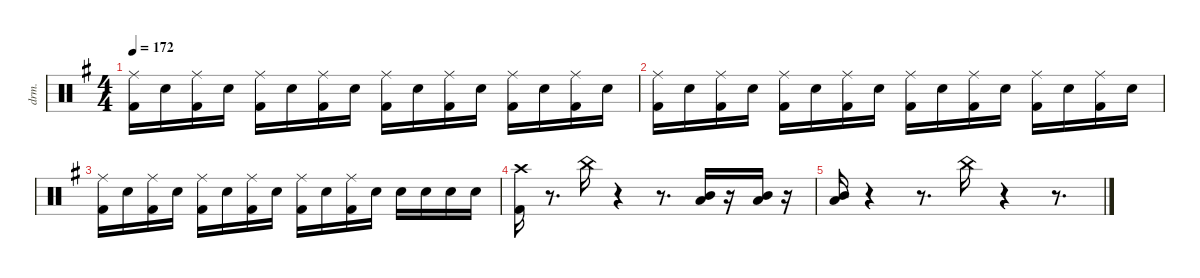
\defaultSystemsLayout 4
\hideDynamics
\bracketExtendMode nobrackets
\otherSystemsTrackNameOrientation horizontal
\track ("Shinya" "drm.") {instrument percussion}
\staff {score}
\articulation defaults
\ts (4 4)
\tempo 172
\clef neutral
\ks eminor
("Kick (hit) 2"{acc forcenatural} "Ride (middle)"{acc #}).16{dy fff beam Down} "Snare (hit) 2"{acc forcenatural}.16{beam Down} ("Kick (hit) 2"{acc forcenatural} "Ride (middle)"{acc #}).16{beam Down} "Snare (hit) 2"{acc forcenatural}.16{beam Down} ("Kick (hit) 2"{acc forcenatural} "Ride (middle)"{acc #}).16{beam Down} "Snare (hit) 2"{acc forcenatural}.16{beam Down} ("Kick (hit) 2"{acc forcenatural} "Ride (middle)"{acc #}).16{beam Down} "Snare (hit) 2"{acc forcenatural}.16{beam Down} ("Kick (hit) 2"{acc forcenatural} "Ride (middle)"{acc #}).16{beam Down} "Snare (hit) 2"{acc forcenatural}.16{beam Down} ("Kick (hit) 2"{acc forcenatural} "Ride (middle)"{acc #}).16{beam Down} "Snare (hit) 2"{acc forcenatural}.16{beam Down} ("Kick (hit) 2"{acc forcenatural} "Ride (middle)"{acc #}).16{beam Down} "Snare (hit) 2"{acc forcenatural}.16{beam Down} ("Kick (hit) 2"{acc forcenatural} "Ride (middle)"{acc #}).16{beam Down} "Snare (hit) 2"{acc forcenatural}.16{beam Down} |
("Kick (hit) 2"{acc forcenatural} "Ride (middle)"{acc #}).16{beam Down} "Snare (hit) 2"{acc forcenatural}.16{beam Down} ("Kick (hit) 2"{acc forcenatural} "Ride (middle)"{acc #}).16{beam Down} "Snare (hit) 2"{acc forcenatural}.16{beam Down} ("Kick (hit) 2"{acc forcenatural} "Ride (middle)"{acc #}).16{beam Down} "Snare (hit) 2"{acc forcenatural}.16{beam Down} ("Kick (hit) 2"{acc forcenatural} "Ride (middle)"{acc #}).16{beam Down} "Snare (hit) 2"{acc forcenatural}.16{beam Down} ("Kick (hit) 2"{acc forcenatural} "Ride (middle)"{acc #}).16{beam Down} "Snare (hit) 2"{acc forcenatural}.16{beam Down} ("Kick (hit) 2"{acc forcenatural} "Ride (middle)"{acc #}).16{beam Down} "Snare (hit) 2"{acc forcenatural}.16{beam Down} ("Kick (hit) 2"{acc forcenatural} "Ride (middle)"{acc #}).16{beam Down} "Snare (hit) 2"{acc forcenatural}.16{beam Down} ("Kick (hit) 2"{acc forcenatural} "Ride (middle)"{acc #}).16{beam Down} "Snare (hit) 2"{acc forcenatural}.16{beam Down} |
("Kick (hit) 2"{acc forcenatural} "Ride (middle)"{acc #}).16{beam Down} "Snare (hit) 2"{acc forcenatural}.16{beam Down} ("Kick (hit) 2"{acc forcenatural} "Ride (middle)"{acc #}).16{beam Down} "Snare (hit) 2"{acc forcenatural}.16{beam Down} ("Kick (hit) 2"{acc forcenatural} "Ride (middle)"{acc #}).16{beam Down} "Snare (hit) 2"{acc forcenatural}.16{beam Down} ("Kick (hit) 2"{acc forcenatural} "Ride (middle)"{acc #}).16{beam Down} "Snare (hit) 2"{acc forcenatural}.16{beam Down} ("Kick (hit) 2"{acc forcenatural} "Ride (middle)"{acc #}).16{beam Down} "Snare (hit) 2"{acc forcenatural}.16{beam Down} ("Kick (hit) 2"{acc forcenatural} "Ride (middle)"{acc #}).16{beam Down} "Snare (hit) 2"{acc forcenatural}.16{beam Down} "Snare (hit) 2"{acc forcenatural}.16{beam Down} "Snare (hit) 2"{acc forcenatural}.16{beam Down} "Snare (hit) 2"{acc forcenatural}.16{beam Down} "Snare (hit) 2"{acc forcenatural}.16{beam Down} |
("Kick (hit) 2"{acc forcenatural} "Crash high (hit)"{acc #}).16{beam Down} r.8{d beam Down} "China (hit)"{acc forcenatural}.16{beam Down} r.4{beam Down} r.8{d beam Down} ("Low Tom (hit)"{acc forcenatural} "Mid Tom (hit)"{acc forcenatural}).16{beam Up} r.16{beam Up} ("Low Tom (hit)"{acc forcenatural} "Mid Tom (hit)"{acc forcenatural}).16{beam Up} r.16{beam Up} |
("Low Tom (hit)"{acc forcenatural} "Mid Tom (hit)"{acc forcenatural}).16{beam Up} r.4{beam Up} r.8{d beam Up} "China (hit)"{acc forcenatural}.16{dy mf beam Down} r.4{beam Down} r.8{d beam Down}
